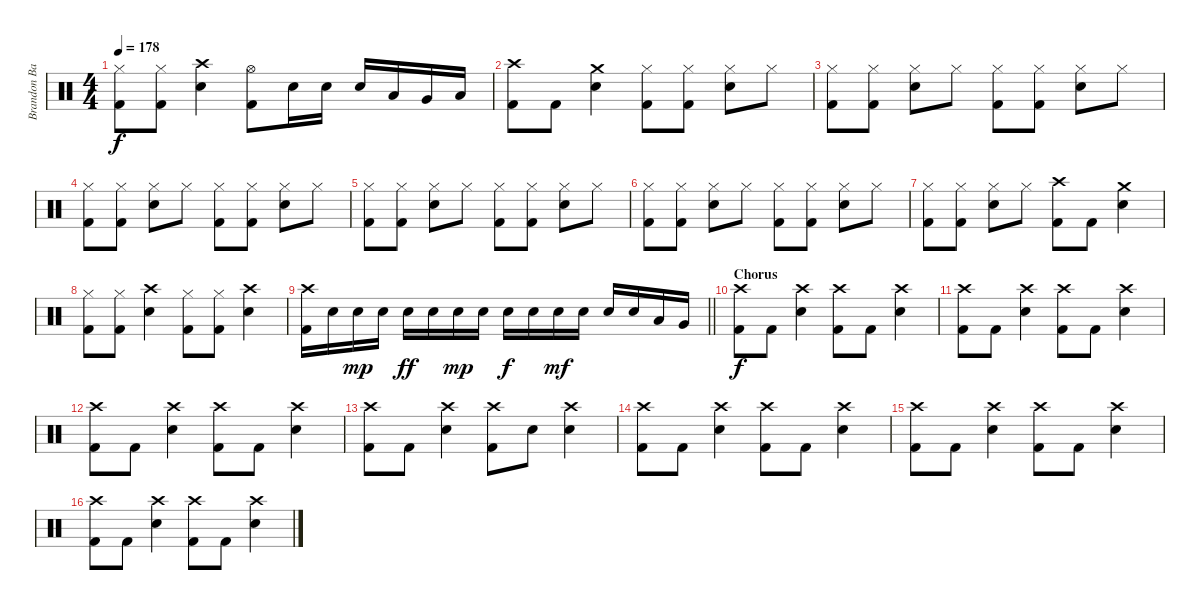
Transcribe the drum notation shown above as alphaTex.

\track ("Brandon Barnes - Drums" "Brandon Ba") {instrument percussion}
\staff {score}
\articulation defaults
\ts (4 4)
\tempo 178
\clef neutral
\ks c
("Kick (hit) 2" "Hi-Hat (closed)").8{dy f} ("Kick (hit) 2" "Hi-Hat (closed)").8 ("Snare (hit) 2" "Crash high (hit)").4 ("Hi-Hat (open)" "Kick (hit) 2").8 "Snare (hit) 2".16 "Snare (hit) 2".16 "Snare (hit) 2".16 "Low Tom (hit)".16 "Very Low Tom (hit)".16 "Low Floor Tom (hit)".16 |
("Kick (hit) 2" "Crash high (hit)").8 "Kick (hit) 2".8 ("Snare (hit) 2" "Crash medium (hit)").4 ("Kick (hit) 2" "Hi-Hat (closed)").8 ("Kick (hit) 2" "Hi-Hat (closed)").8 ("Snare (hit) 2" "Hi-Hat (closed)").8 "Hi-Hat (closed)".8 |
("Kick (hit) 2" "Hi-Hat (closed)").8 ("Kick (hit) 2" "Hi-Hat (closed)").8 ("Snare (hit) 2" "Hi-Hat (closed)").8 "Hi-Hat (closed)".8 ("Kick (hit) 2" "Hi-Hat (closed)").8 ("Kick (hit) 2" "Hi-Hat (closed)").8 ("Snare (hit) 2" "Hi-Hat (closed)").8 "Hi-Hat (closed)".8 |
("Kick (hit) 2" "Hi-Hat (closed)").8 ("Kick (hit) 2" "Hi-Hat (closed)").8 ("Snare (hit) 2" "Hi-Hat (closed)").8 "Hi-Hat (closed)".8 ("Kick (hit) 2" "Hi-Hat (closed)").8 ("Kick (hit) 2" "Hi-Hat (closed)").8 ("Snare (hit) 2" "Hi-Hat (closed)").8 "Hi-Hat (closed)".8 |
("Kick (hit) 2" "Hi-Hat (closed)").8 ("Kick (hit) 2" "Hi-Hat (closed)").8 ("Snare (hit) 2" "Hi-Hat (closed)").8 "Hi-Hat (closed)".8 ("Kick (hit) 2" "Hi-Hat (closed)").8 ("Kick (hit) 2" "Hi-Hat (closed)").8 ("Snare (hit) 2" "Hi-Hat (closed)").8 "Hi-Hat (closed)".8 |
("Kick (hit) 2" "Hi-Hat (closed)").8 ("Kick (hit) 2" "Hi-Hat (closed)").8 ("Snare (hit) 2" "Hi-Hat (closed)").8 "Hi-Hat (closed)".8 ("Kick (hit) 2" "Hi-Hat (closed)").8 ("Kick (hit) 2" "Hi-Hat (closed)").8 ("Snare (hit) 2" "Hi-Hat (closed)").8 "Hi-Hat (closed)".8 |
("Kick (hit) 2" "Hi-Hat (closed)").8 ("Kick (hit) 2" "Hi-Hat (closed)").8 ("Snare (hit) 2" "Hi-Hat (closed)").8 "Hi-Hat (closed)".8 ("Kick (hit) 2" "Crash high (hit)").8 "Kick (hit) 2".8 ("Snare (hit) 2" "Crash medium (hit)").4 |
("Kick (hit) 2" "Hi-Hat (closed)").8 ("Kick (hit) 2" "Hi-Hat (closed)").8 ("Snare (hit) 2" "Crash high (hit)").4 ("Kick (hit) 2" "Hi-Hat (closed)").8 ("Kick (hit) 2" "Hi-Hat (closed)").8 ("Snare (hit) 2" "Crash high (hit)").4 |
\barLineRight lightlight
("Crash high (hit)" "Kick (hit) 2").16 "Snare (hit) 2".16 "Snare (hit) 2".16{dy mp} "Snare (hit) 2".16 "Snare (hit) 2".16{dy ff} "Snare (hit) 2".16 "Snare (hit) 2".16{dy mp} "Snare (hit) 2".16 "Snare (hit) 2".16{dy f} "Snare (hit) 2".16 "Snare (hit) 2".16{dy mf} "Snare (hit) 2".16 "Snare (hit) 2".16 "Snare (hit) 2".16 "Low Tom (hit)".16 "Very Low Tom (hit)".16 |
\section ("" "Chorus")
("Crash high (hit)" "Kick (hit) 2").8{dy f} "Kick (hit) 2".8 ("Snare (hit) 2" "Crash high (hit)").4 ("Crash high (hit)" "Kick (hit) 2").8 "Kick (hit) 2".8 ("Snare (hit) 2" "Crash high (hit)").4 |
("Crash high (hit)" "Kick (hit) 2").8 "Kick (hit) 2".8 ("Snare (hit) 2" "Crash high (hit)").4 ("Crash high (hit)" "Kick (hit) 2").8 "Kick (hit) 2".8 ("Snare (hit) 2" "Crash high (hit)").4 |
("Crash high (hit)" "Kick (hit) 2").8 "Kick (hit) 2".8 ("Snare (hit) 2" "Crash high (hit)").4 ("Crash high (hit)" "Kick (hit) 2").8 "Kick (hit) 2".8 ("Snare (hit) 2" "Crash high (hit)").4 |
("Crash high (hit)" "Kick (hit) 2").8 "Kick (hit) 2".8 ("Snare (hit) 2" "Crash high (hit)").4 ("Crash high (hit)" "Kick (hit) 2").8 "Snare (hit) 2".8 ("Snare (hit) 2" "Crash high (hit)").4 |
("Crash high (hit)" "Kick (hit) 2").8 "Kick (hit) 2".8 ("Snare (hit) 2" "Crash high (hit)").4 ("Crash high (hit)" "Kick (hit) 2").8 "Kick (hit) 2".8 ("Snare (hit) 2" "Crash high (hit)").4 |
("Crash high (hit)" "Kick (hit) 2").8 "Kick (hit) 2".8 ("Snare (hit) 2" "Crash high (hit)").4 ("Crash high (hit)" "Kick (hit) 2").8 "Kick (hit) 2".8 ("Snare (hit) 2" "Crash high (hit)").4 |
("Crash high (hit)" "Kick (hit) 2").8 "Kick (hit) 2".8 ("Snare (hit) 2" "Crash high (hit)").4 ("Crash high (hit)" "Kick (hit) 2").8 "Kick (hit) 2".8 ("Snare (hit) 2" "Crash high (hit)").4
